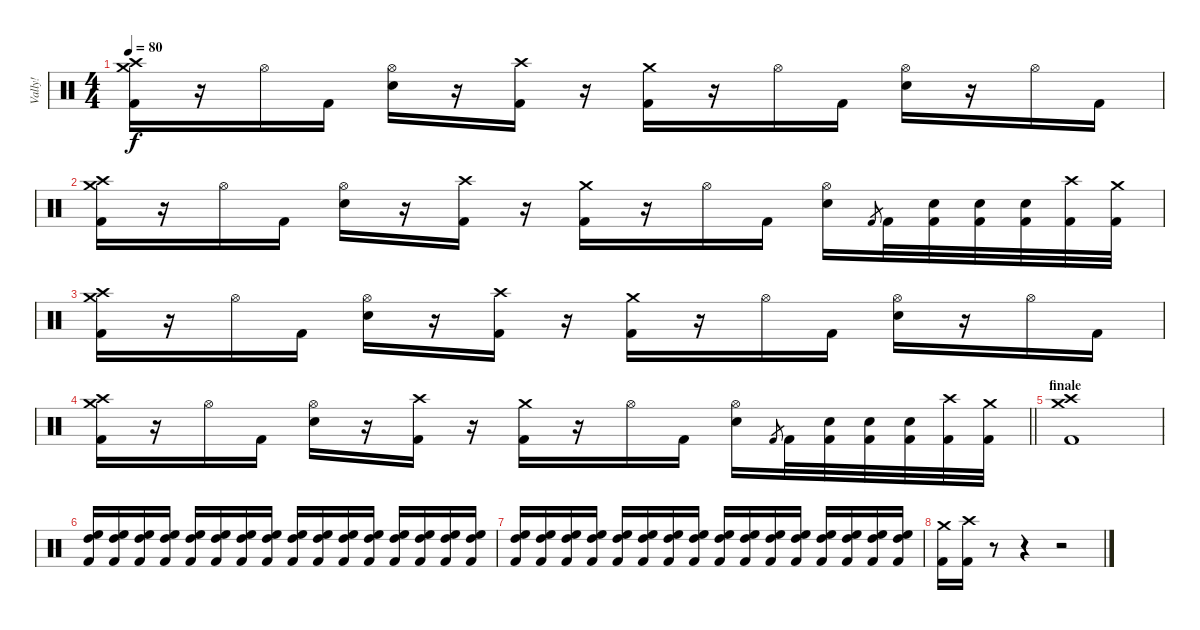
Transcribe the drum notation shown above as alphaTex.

\track ("Vally!" "Vally!") {instrument percussion}
\staff {score}
\articulation defaults
\ts (4 4)
\tempo 80
\clef neutral
\ks c
("Crash high (hit)" "Crash medium (hit)" "Kick (hit) 2").16{dy f} r.16 "Hi-Hat (open)".16 "Kick (hit) 2".16 ("Hi-Hat (open)" "Electric Snare (hit)").16 r.16 ("Crash high (hit)" "Kick (hit) 2").16 r.16 ("Crash medium (hit)" "Kick (hit) 2").16 r.16 "Hi-Hat (open)".16 "Kick (hit) 2".16 ("Hi-Hat (open)" "Electric Snare (hit)").16 r.16 "Hi-Hat (open)".16 "Kick (hit) 2".16 |
("Crash high (hit)" "Crash medium (hit)" "Kick (hit) 2").16 r.16 "Hi-Hat (open)".16 "Kick (hit) 2".16 ("Hi-Hat (open)" "Electric Snare (hit)").16 r.16 ("Crash high (hit)" "Kick (hit) 2").16 r.16 ("Crash medium (hit)" "Kick (hit) 2").16 r.16 "Hi-Hat (open)".16 "Kick (hit) 2".16 ("Hi-Hat (open)" "Electric Snare (hit)").16 "Kick (hit) 2".8{gr} "Kick (hit) 2".32 ("Electric Snare (hit)" "Kick (hit) 2").32 ("Electric Snare (hit)" "Kick (hit) 2").32 ("Electric Snare (hit)" "Kick (hit) 2").32 ("Crash high (hit)" "Kick (hit) 2").32 ("Crash medium (hit)" "Kick (hit) 2").32 |
("Crash high (hit)" "Crash medium (hit)" "Kick (hit) 2").16 r.16 "Hi-Hat (open)".16 "Kick (hit) 2".16 ("Hi-Hat (open)" "Electric Snare (hit)").16 r.16 ("Crash high (hit)" "Kick (hit) 2").16 r.16 ("Crash medium (hit)" "Kick (hit) 2").16 r.16 "Hi-Hat (open)".16 "Kick (hit) 2".16 ("Hi-Hat (open)" "Electric Snare (hit)").16 r.16 "Hi-Hat (open)".16 "Kick (hit) 2".16 |
\barLineRight lightlight
("Crash high (hit)" "Crash medium (hit)" "Kick (hit) 2").16 r.16 "Hi-Hat (open)".16 "Kick (hit) 2".16 ("Hi-Hat (open)" "Electric Snare (hit)").16 r.16 ("Crash high (hit)" "Kick (hit) 2").16 r.16 ("Crash medium (hit)" "Kick (hit) 2").16 r.16 "Hi-Hat (open)".16 "Kick (hit) 2".16 ("Hi-Hat (open)" "Electric Snare (hit)").16 "Kick (hit) 2".8{gr} "Kick (hit) 2".32 ("Electric Snare (hit)" "Kick (hit) 2").32 ("Electric Snare (hit)" "Kick (hit) 2").32 ("Electric Snare (hit)" "Kick (hit) 2").32 ("Crash high (hit)" "Kick (hit) 2").32 ("Crash medium (hit)" "Kick (hit) 2").32 |
\section ("" "finale")
("Crash medium (hit)" "Crash high (hit)" "Kick (hit) 2").1 |
("High Floor Tom (hit)" "High Tom (hit)" "Kick (hit) 2").16 ("High Floor Tom (hit)" "High Tom (hit)" "Kick (hit) 2").16 ("High Floor Tom (hit)" "High Tom (hit)" "Kick (hit) 2").16 ("High Floor Tom (hit)" "High Tom (hit)" "Kick (hit) 2").16 ("High Floor Tom (hit)" "High Tom (hit)" "Kick (hit) 2").16 ("High Floor Tom (hit)" "High Tom (hit)" "Kick (hit) 2").16 ("High Floor Tom (hit)" "High Tom (hit)" "Kick (hit) 2").16 ("High Floor Tom (hit)" "High Tom (hit)" "Kick (hit) 2").16 ("High Floor Tom (hit)" "High Tom (hit)" "Kick (hit) 2").16 ("High Floor Tom (hit)" "High Tom (hit)" "Kick (hit) 2").16 ("High Floor Tom (hit)" "High Tom (hit)" "Kick (hit) 2").16 ("High Floor Tom (hit)" "High Tom (hit)" "Kick (hit) 2").16 ("High Floor Tom (hit)" "High Tom (hit)" "Kick (hit) 2").16 ("High Floor Tom (hit)" "High Tom (hit)" "Kick (hit) 2").16 ("High Floor Tom (hit)" "High Tom (hit)" "Kick (hit) 2").16 ("High Floor Tom (hit)" "High Tom (hit)" "Kick (hit) 2").16 |
("High Floor Tom (hit)" "High Tom (hit)" "Kick (hit) 2").16 ("High Floor Tom (hit)" "High Tom (hit)" "Kick (hit) 2").16 ("High Floor Tom (hit)" "High Tom (hit)" "Kick (hit) 2").16 ("High Floor Tom (hit)" "High Tom (hit)" "Kick (hit) 2").16 ("High Floor Tom (hit)" "High Tom (hit)" "Kick (hit) 2").16 ("High Floor Tom (hit)" "High Tom (hit)" "Kick (hit) 2").16 ("High Floor Tom (hit)" "High Tom (hit)" "Kick (hit) 2").16 ("High Floor Tom (hit)" "High Tom (hit)" "Kick (hit) 2").16 ("High Floor Tom (hit)" "High Tom (hit)" "Kick (hit) 2").16 ("High Floor Tom (hit)" "High Tom (hit)" "Kick (hit) 2").16 ("High Floor Tom (hit)" "High Tom (hit)" "Kick (hit) 2").16 ("High Floor Tom (hit)" "High Tom (hit)" "Kick (hit) 2").16 ("High Floor Tom (hit)" "High Tom (hit)" "Kick (hit) 2").16 ("High Floor Tom (hit)" "High Tom (hit)" "Kick (hit) 2").16 ("High Floor Tom (hit)" "High Tom (hit)" "Kick (hit) 2").16 ("High Floor Tom (hit)" "High Tom (hit)" "Kick (hit) 2").16 |
("Crash medium (hit)" "Kick (hit) 2").16 ("Crash high (hit)" "Kick (hit) 2").16 r.8 r.4 r.2
